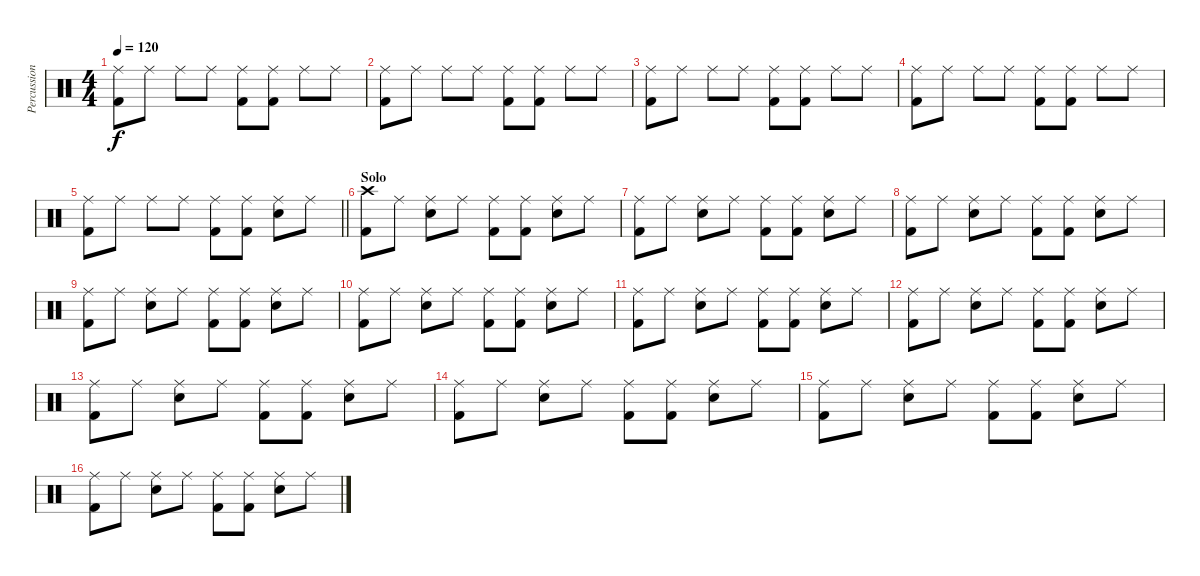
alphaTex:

\track ("Percussion" "Percussion") {instrument percussion}
\staff {score}
\articulation defaults
\ts (4 4)
\tempo 120
\clef neutral
\ks c
("Ride (middle)" "Kick (hit) 2").8{dy f} "Ride (middle)".8 "Ride (middle)".8 "Ride (middle)".8 ("Ride (middle)" "Kick (hit) 2").8 ("Ride (middle)" "Kick (hit) 2").8 "Ride (middle)".8 "Ride (middle)".8 |
("Ride (middle)" "Kick (hit) 2").8 "Ride (middle)".8 "Ride (middle)".8 "Ride (middle)".8 ("Ride (middle)" "Kick (hit) 2").8 ("Ride (middle)" "Kick (hit) 2").8 "Ride (middle)".8 "Ride (middle)".8 |
("Ride (middle)" "Kick (hit) 2").8 "Ride (middle)".8 "Ride (middle)".8 "Ride (middle)".8 ("Ride (middle)" "Kick (hit) 2").8 ("Ride (middle)" "Kick (hit) 2").8 "Ride (middle)".8 "Ride (middle)".8 |
("Ride (middle)" "Kick (hit) 2").8 "Ride (middle)".8 "Ride (middle)".8 "Ride (middle)".8 ("Ride (middle)" "Kick (hit) 2").8 ("Ride (middle)" "Kick (hit) 2").8 "Ride (middle)".8 "Ride (middle)".8 |
\barLineRight lightlight
("Ride (middle)" "Kick (hit) 2").8 "Ride (middle)".8 "Ride (middle)".8 "Ride (middle)".8 ("Ride (middle)" "Kick (hit) 2").8 ("Ride (middle)" "Kick (hit) 2").8 ("Ride (middle)" "Electric Snare (hit)").8 "Ride (middle)".8 |
\section ("" "Solo")
("Crash high (hit)" "Kick (hit) 2").8 "Ride (middle)".8 ("Ride (middle)" "Electric Snare (hit)").8 "Ride (middle)".8 ("Ride (middle)" "Kick (hit) 2").8 ("Ride (middle)" "Kick (hit) 2").8 ("Ride (middle)" "Electric Snare (hit)").8 "Ride (middle)".8 |
("Ride (middle)" "Kick (hit) 2").8 "Ride (middle)".8 ("Ride (middle)" "Electric Snare (hit)").8 "Ride (middle)".8 ("Ride (middle)" "Kick (hit) 2").8 ("Ride (middle)" "Kick (hit) 2").8 ("Ride (middle)" "Electric Snare (hit)").8 "Ride (middle)".8 |
("Ride (middle)" "Kick (hit) 2").8 "Ride (middle)".8 ("Ride (middle)" "Electric Snare (hit)").8 "Ride (middle)".8 ("Ride (middle)" "Kick (hit) 2").8 ("Ride (middle)" "Kick (hit) 2").8 ("Ride (middle)" "Electric Snare (hit)").8 "Ride (middle)".8 |
("Ride (middle)" "Kick (hit) 2").8 "Ride (middle)".8 ("Ride (middle)" "Electric Snare (hit)").8 "Ride (middle)".8 ("Ride (middle)" "Kick (hit) 2").8 ("Ride (middle)" "Kick (hit) 2").8 ("Ride (middle)" "Electric Snare (hit)").8 "Ride (middle)".8 |
("Ride (middle)" "Kick (hit) 2").8 "Ride (middle)".8 ("Ride (middle)" "Electric Snare (hit)").8 "Ride (middle)".8 ("Ride (middle)" "Kick (hit) 2").8 ("Ride (middle)" "Kick (hit) 2").8 ("Ride (middle)" "Electric Snare (hit)").8 "Ride (middle)".8 |
("Ride (middle)" "Kick (hit) 2").8 "Ride (middle)".8 ("Ride (middle)" "Electric Snare (hit)").8 "Ride (middle)".8 ("Ride (middle)" "Kick (hit) 2").8 ("Ride (middle)" "Kick (hit) 2").8 ("Ride (middle)" "Electric Snare (hit)").8 "Ride (middle)".8 |
("Ride (middle)" "Kick (hit) 2").8 "Ride (middle)".8 ("Ride (middle)" "Electric Snare (hit)").8 "Ride (middle)".8 ("Ride (middle)" "Kick (hit) 2").8 ("Ride (middle)" "Kick (hit) 2").8 ("Ride (middle)" "Electric Snare (hit)").8 "Ride (middle)".8 |
("Ride (middle)" "Kick (hit) 2").8 "Ride (middle)".8 ("Ride (middle)" "Electric Snare (hit)").8 "Ride (middle)".8 ("Ride (middle)" "Kick (hit) 2").8 ("Ride (middle)" "Kick (hit) 2").8 ("Ride (middle)" "Electric Snare (hit)").8 "Ride (middle)".8 |
("Ride (middle)" "Kick (hit) 2").8 "Ride (middle)".8 ("Ride (middle)" "Electric Snare (hit)").8 "Ride (middle)".8 ("Ride (middle)" "Kick (hit) 2").8 ("Ride (middle)" "Kick (hit) 2").8 ("Ride (middle)" "Electric Snare (hit)").8 "Ride (middle)".8 |
("Ride (middle)" "Kick (hit) 2").8 "Ride (middle)".8 ("Ride (middle)" "Electric Snare (hit)").8 "Ride (middle)".8 ("Ride (middle)" "Kick (hit) 2").8 ("Ride (middle)" "Kick (hit) 2").8 ("Ride (middle)" "Electric Snare (hit)").8 "Ride (middle)".8 |
("Ride (middle)" "Kick (hit) 2").8 "Ride (middle)".8 ("Ride (middle)" "Electric Snare (hit)").8 "Ride (middle)".8 ("Ride (middle)" "Kick (hit) 2").8 ("Ride (middle)" "Kick (hit) 2").8 ("Ride (middle)" "Electric Snare (hit)").8 "Ride (middle)".8
